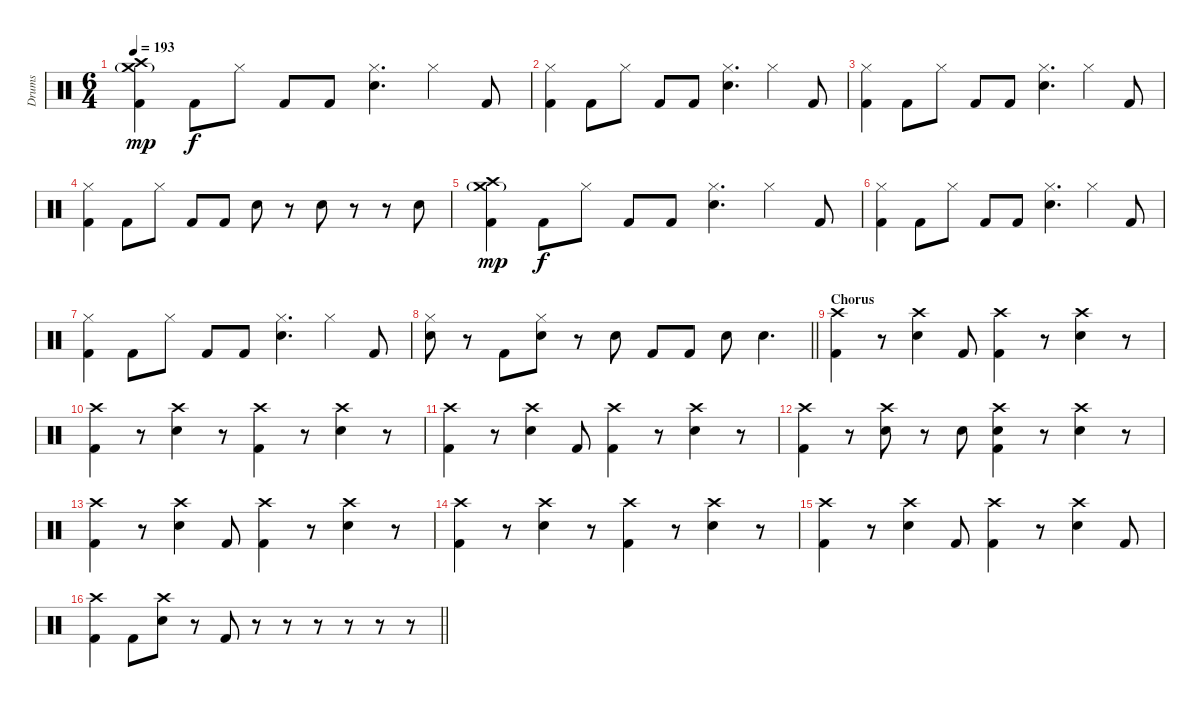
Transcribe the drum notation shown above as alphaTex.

\track ("Drums" "Drums") {instrument percussion}
\staff {score}
\articulation defaults
\ts (6 4)
\tempo 193
\clef neutral
\ks c
("Crash high (hit)" "Crash medium (hit)"{g} "Kick (hit) 2").4{dy mp} "Kick (hit) 2".8{dy f} "Hi-Hat (closed)".8 "Kick (hit) 2".8 "Kick (hit) 2".8 ("Hi-Hat (closed)" "Electric Snare (hit)").4{d} "Hi-Hat (closed)".4 "Kick (hit) 2".8 |
("Hi-Hat (closed)" "Kick (hit) 2").4 "Kick (hit) 2".8 "Hi-Hat (closed)".8 "Kick (hit) 2".8 "Kick (hit) 2".8 ("Hi-Hat (closed)" "Electric Snare (hit)").4{d} "Hi-Hat (closed)".4 "Kick (hit) 2".8 |
("Hi-Hat (closed)" "Kick (hit) 2").4 "Kick (hit) 2".8 "Hi-Hat (closed)".8 "Kick (hit) 2".8 "Kick (hit) 2".8 ("Hi-Hat (closed)" "Electric Snare (hit)").4{d} "Hi-Hat (closed)".4 "Kick (hit) 2".8 |
("Hi-Hat (closed)" "Kick (hit) 2").4 "Kick (hit) 2".8 "Hi-Hat (closed)".8 "Kick (hit) 2".8 "Kick (hit) 2".8 "Electric Snare (hit)".8 r.8 "Electric Snare (hit)".8 r.8 r.8 "Electric Snare (hit)".8 |
("Crash high (hit)" "Crash medium (hit)"{g} "Kick (hit) 2").4{dy mp} "Kick (hit) 2".8{dy f} "Hi-Hat (closed)".8 "Kick (hit) 2".8 "Kick (hit) 2".8 ("Hi-Hat (closed)" "Electric Snare (hit)").4{d} "Hi-Hat (closed)".4 "Kick (hit) 2".8 |
("Hi-Hat (closed)" "Kick (hit) 2").4 "Kick (hit) 2".8 "Hi-Hat (closed)".8 "Kick (hit) 2".8 "Kick (hit) 2".8 ("Hi-Hat (closed)" "Electric Snare (hit)").4{d} "Hi-Hat (closed)".4 "Kick (hit) 2".8 |
("Hi-Hat (closed)" "Kick (hit) 2").4 "Kick (hit) 2".8 "Hi-Hat (closed)".8 "Kick (hit) 2".8 "Kick (hit) 2".8 ("Hi-Hat (closed)" "Electric Snare (hit)").4{d} "Hi-Hat (closed)".4 "Kick (hit) 2".8 |
\barLineRight lightlight
("Hi-Hat (closed)" "Electric Snare (hit)").8 r.8 "Kick (hit) 2".8 ("Hi-Hat (closed)" "Electric Snare (hit)").8 r.8 "Electric Snare (hit)".8 "Kick (hit) 2".8 "Kick (hit) 2".8 "Electric Snare (hit)".8 "Electric Snare (hit)".4{d} |
\section ("" "Chorus")
("Crash high (hit)" "Kick (hit) 2").4 r.8 ("Crash high (hit)" "Electric Snare (hit)").4 "Kick (hit) 2".8 ("Crash high (hit)" "Kick (hit) 2").4 r.8 ("Crash high (hit)" "Electric Snare (hit)").4 r.8 |
("Crash high (hit)" "Kick (hit) 2").4 r.8 ("Crash high (hit)" "Electric Snare (hit)").4 r.8 ("Crash high (hit)" "Kick (hit) 2").4 r.8 ("Crash high (hit)" "Electric Snare (hit)").4 r.8 |
("Crash high (hit)" "Kick (hit) 2").4 r.8 ("Crash high (hit)" "Electric Snare (hit)").4 "Kick (hit) 2".8 ("Crash high (hit)" "Kick (hit) 2").4 r.8 ("Crash high (hit)" "Electric Snare (hit)").4 r.8 |
("Crash high (hit)" "Kick (hit) 2").4 r.8 ("Crash high (hit)" "Electric Snare (hit)").8 r.8 "Electric Snare (hit)".8 ("Crash high (hit)" "Electric Snare (hit)" "Kick (hit) 2").4 r.8 ("Crash high (hit)" "Electric Snare (hit)").4 r.8 |
("Crash high (hit)" "Kick (hit) 2").4 r.8 ("Crash high (hit)" "Electric Snare (hit)").4 "Kick (hit) 2".8 ("Crash high (hit)" "Kick (hit) 2").4 r.8 ("Crash high (hit)" "Electric Snare (hit)").4 r.8 |
("Crash high (hit)" "Kick (hit) 2").4 r.8 ("Crash high (hit)" "Electric Snare (hit)").4 r.8 ("Crash high (hit)" "Kick (hit) 2").4 r.8 ("Crash high (hit)" "Electric Snare (hit)").4 r.8 |
("Crash high (hit)" "Kick (hit) 2").4 r.8 ("Crash high (hit)" "Electric Snare (hit)").4 "Kick (hit) 2".8 ("Crash high (hit)" "Kick (hit) 2").4 r.8 ("Crash high (hit)" "Electric Snare (hit)").4 "Kick (hit) 2".8 |
\barLineRight lightlight
("Crash high (hit)" "Kick (hit) 2").4 "Kick (hit) 2".8 ("Crash high (hit)" "Electric Snare (hit)").8 r.8 "Kick (hit) 2".8 r.8 r.8 r.8 r.8 r.8 r.8
